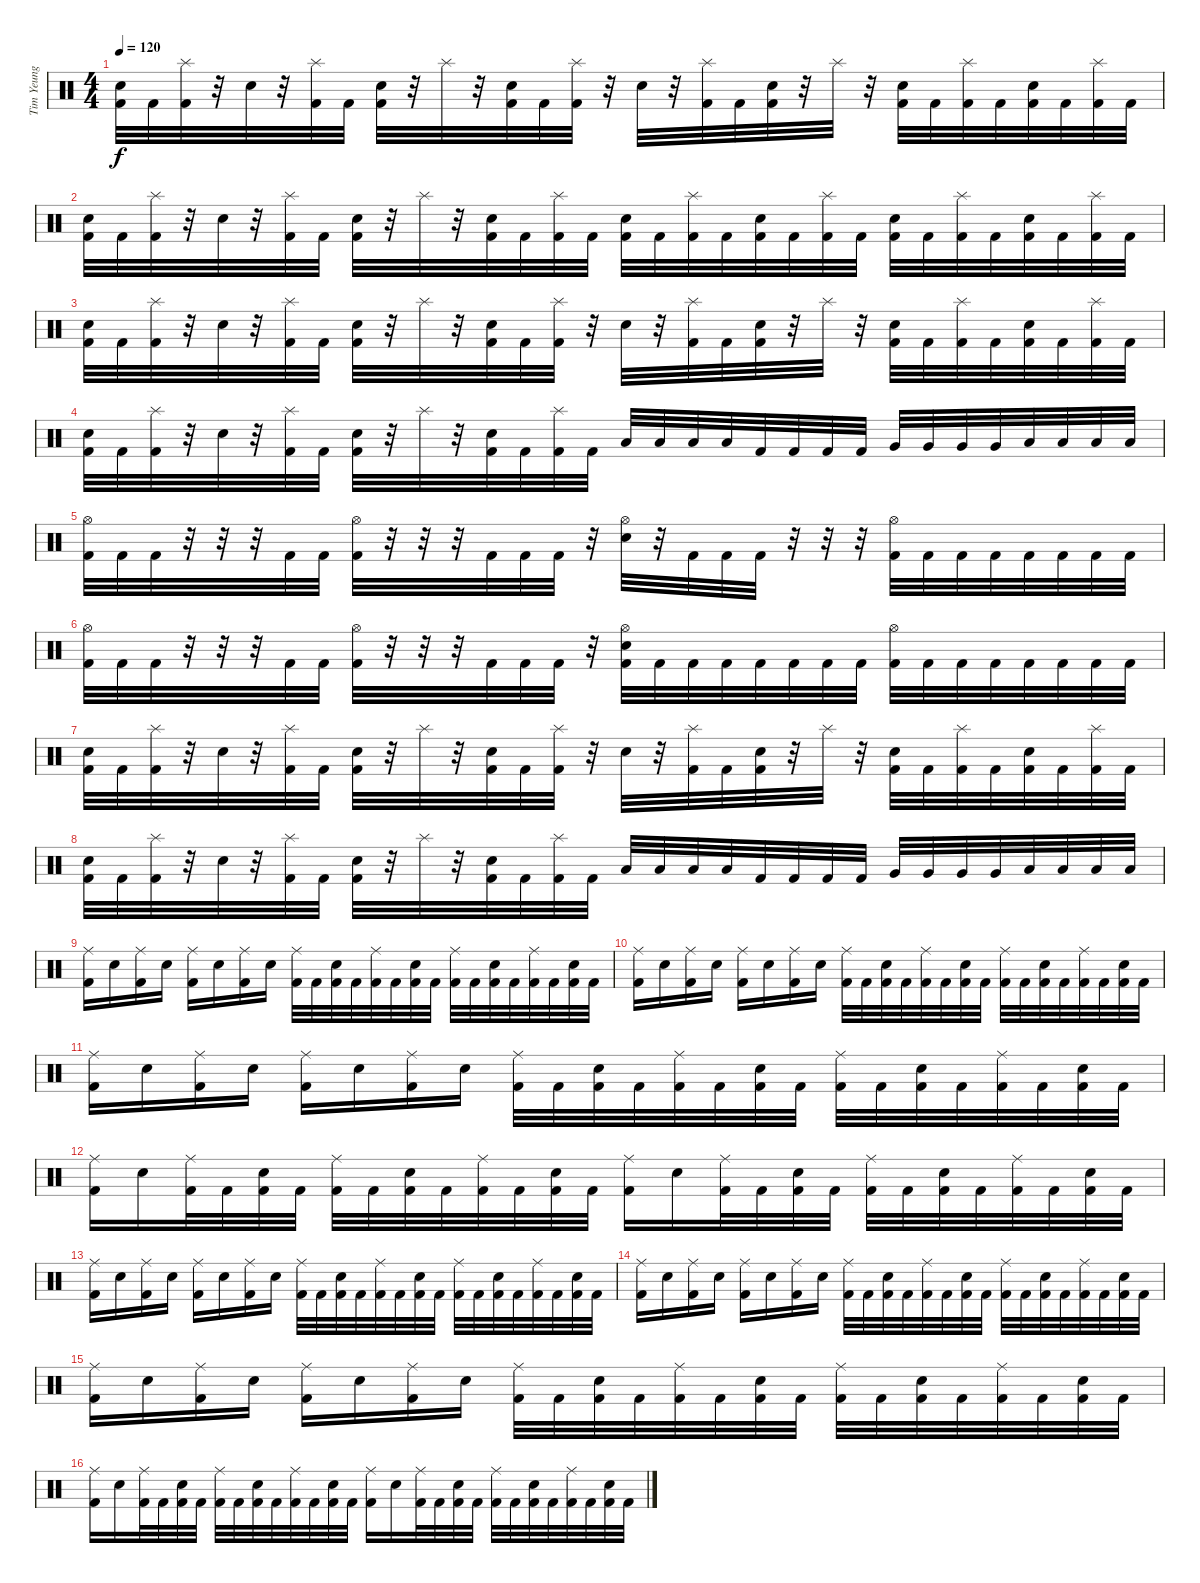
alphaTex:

\track ("Tim Yeung" "Tim Yeung") {instrument percussion}
\staff {score}
\articulation defaults
\ts (4 4)
\tempo 120
\clef neutral
\ks c
("Electric Snare (hit)" "Kick (hit) 2").32{dy f} "Kick (hit) 2".32 ("Splash (hit)" "Kick (hit) 2").32 r.32 "Electric Snare (hit)".32 r.32 ("Splash (hit)" "Kick (hit) 2").32 "Kick (hit) 2".32 ("Electric Snare (hit)" "Kick (hit) 2").32 r.32 "Splash (hit)".32 r.32 ("Electric Snare (hit)" "Kick (hit) 2").32 "Kick (hit) 2".32 ("Splash (hit)" "Kick (hit) 2").32 r.32 "Electric Snare (hit)".32 r.32 ("Splash (hit)" "Kick (hit) 2").32 "Kick (hit) 2".32 ("Electric Snare (hit)" "Kick (hit) 2").32 r.32 "Splash (hit)".32 r.32 ("Electric Snare (hit)" "Kick (hit) 2").32 "Kick (hit) 2".32 ("Splash (hit)" "Kick (hit) 2").32 "Kick (hit) 2".32 ("Electric Snare (hit)" "Kick (hit) 2").32 "Kick (hit) 2".32 ("Splash (hit)" "Kick (hit) 2").32 "Kick (hit) 2".32 |
("Electric Snare (hit)" "Kick (hit) 2").32 "Kick (hit) 2".32 ("Splash (hit)" "Kick (hit) 2").32 r.32 "Electric Snare (hit)".32 r.32 ("Splash (hit)" "Kick (hit) 2").32 "Kick (hit) 2".32 ("Electric Snare (hit)" "Kick (hit) 2").32 r.32 "Splash (hit)".32 r.32 ("Electric Snare (hit)" "Kick (hit) 2").32 "Kick (hit) 2".32 ("Splash (hit)" "Kick (hit) 2").32 "Kick (hit) 2".32 ("Electric Snare (hit)" "Kick (hit) 2").32 "Kick (hit) 2".32 ("Splash (hit)" "Kick (hit) 2").32 "Kick (hit) 2".32 ("Electric Snare (hit)" "Kick (hit) 2").32 "Kick (hit) 2".32 ("Splash (hit)" "Kick (hit) 2").32 "Kick (hit) 2".32 ("Electric Snare (hit)" "Kick (hit) 2").32 "Kick (hit) 2".32 ("Splash (hit)" "Kick (hit) 2").32 "Kick (hit) 2".32 ("Electric Snare (hit)" "Kick (hit) 2").32 "Kick (hit) 2".32 ("Splash (hit)" "Kick (hit) 2").32 "Kick (hit) 2".32 |
("Electric Snare (hit)" "Kick (hit) 2").32 "Kick (hit) 2".32 ("Splash (hit)" "Kick (hit) 2").32 r.32 "Electric Snare (hit)".32 r.32 ("Splash (hit)" "Kick (hit) 2").32 "Kick (hit) 2".32 ("Electric Snare (hit)" "Kick (hit) 2").32 r.32 "Splash (hit)".32 r.32 ("Electric Snare (hit)" "Kick (hit) 2").32 "Kick (hit) 2".32 ("Splash (hit)" "Kick (hit) 2").32 r.32 "Electric Snare (hit)".32 r.32 ("Splash (hit)" "Kick (hit) 2").32 "Kick (hit) 2".32 ("Electric Snare (hit)" "Kick (hit) 2").32 r.32 "Splash (hit)".32 r.32 ("Electric Snare (hit)" "Kick (hit) 2").32 "Kick (hit) 2".32 ("Splash (hit)" "Kick (hit) 2").32 "Kick (hit) 2".32 ("Electric Snare (hit)" "Kick (hit) 2").32 "Kick (hit) 2".32 ("Splash (hit)" "Kick (hit) 2").32 "Kick (hit) 2".32 |
("Electric Snare (hit)" "Kick (hit) 2").32 "Kick (hit) 2".32 ("Splash (hit)" "Kick (hit) 2").32 r.32 "Electric Snare (hit)".32 r.32 ("Splash (hit)" "Kick (hit) 2").32 "Kick (hit) 2".32 ("Electric Snare (hit)" "Kick (hit) 2").32 r.32 "Splash (hit)".32 r.32 ("Electric Snare (hit)" "Kick (hit) 2").32 "Kick (hit) 2".32 ("Splash (hit)" "Kick (hit) 2").32 "Kick (hit) 2".32 "Low Tom (hit)".32 "Low Tom (hit)".32 "Low Tom (hit)".32 "Low Tom (hit)".32 "Kick (hit) 2".32 "Kick (hit) 2".32 "Kick (hit) 2".32 "Kick (hit) 2".32 "Very Low Tom (hit)".32 "Very Low Tom (hit)".32 "Very Low Tom (hit)".32 "Very Low Tom (hit)".32 "Low Floor Tom (hit)".32 "Low Floor Tom (hit)".32 "Low Floor Tom (hit)".32 "Low Floor Tom (hit)".32 |
("Hi-Hat (open)" "Kick (hit) 2").32 "Kick (hit) 2".32 "Kick (hit) 2".32 r.32 r.32 r.32 "Kick (hit) 2".32 "Kick (hit) 2".32 ("Hi-Hat (open)" "Kick (hit) 2").32 r.32 r.32 r.32 "Kick (hit) 2".32 "Kick (hit) 2".32 "Kick (hit) 2".32 r.32 ("Hi-Hat (open)" "Electric Snare (hit)").32 r.32 "Kick (hit) 2".32 "Kick (hit) 2".32 "Kick (hit) 2".32 r.32 r.32 r.32 ("Hi-Hat (open)" "Kick (hit) 2").32 "Kick (hit) 2".32 "Kick (hit) 2".32 "Kick (hit) 2".32 "Kick (hit) 2".32 "Kick (hit) 2".32 "Kick (hit) 2".32 "Kick (hit) 2".32 |
("Hi-Hat (open)" "Kick (hit) 2").32 "Kick (hit) 2".32 "Kick (hit) 2".32 r.32 r.32 r.32 "Kick (hit) 2".32 "Kick (hit) 2".32 ("Hi-Hat (open)" "Kick (hit) 2").32 r.32 r.32 r.32 "Kick (hit) 2".32 "Kick (hit) 2".32 "Kick (hit) 2".32 r.32 ("Hi-Hat (open)" "Electric Snare (hit)" "Kick (hit) 2").32 "Kick (hit) 2".32 "Kick (hit) 2".32 "Kick (hit) 2".32 "Kick (hit) 2".32 "Kick (hit) 2".32 "Kick (hit) 2".32 "Kick (hit) 2".32 ("Hi-Hat (open)" "Kick (hit) 2").32 "Kick (hit) 2".32 "Kick (hit) 2".32 "Kick (hit) 2".32 "Kick (hit) 2".32 "Kick (hit) 2".32 "Kick (hit) 2".32 "Kick (hit) 2".32 |
("Electric Snare (hit)" "Kick (hit) 2").32 "Kick (hit) 2".32 ("Splash (hit)" "Kick (hit) 2").32 r.32 "Electric Snare (hit)".32 r.32 ("Splash (hit)" "Kick (hit) 2").32 "Kick (hit) 2".32 ("Electric Snare (hit)" "Kick (hit) 2").32 r.32 "Splash (hit)".32 r.32 ("Electric Snare (hit)" "Kick (hit) 2").32 "Kick (hit) 2".32 ("Splash (hit)" "Kick (hit) 2").32 r.32 "Electric Snare (hit)".32 r.32 ("Splash (hit)" "Kick (hit) 2").32 "Kick (hit) 2".32 ("Electric Snare (hit)" "Kick (hit) 2").32 r.32 "Splash (hit)".32 r.32 ("Electric Snare (hit)" "Kick (hit) 2").32 "Kick (hit) 2".32 ("Splash (hit)" "Kick (hit) 2").32 "Kick (hit) 2".32 ("Electric Snare (hit)" "Kick (hit) 2").32 "Kick (hit) 2".32 ("Splash (hit)" "Kick (hit) 2").32 "Kick (hit) 2".32 |
("Electric Snare (hit)" "Kick (hit) 2").32 "Kick (hit) 2".32 ("Splash (hit)" "Kick (hit) 2").32 r.32 "Electric Snare (hit)".32 r.32 ("Splash (hit)" "Kick (hit) 2").32 "Kick (hit) 2".32 ("Electric Snare (hit)" "Kick (hit) 2").32 r.32 "Splash (hit)".32 r.32 ("Electric Snare (hit)" "Kick (hit) 2").32 "Kick (hit) 2".32 ("Splash (hit)" "Kick (hit) 2").32 "Kick (hit) 2".32 "Low Tom (hit)".32 "Low Tom (hit)".32 "Low Tom (hit)".32 "Low Tom (hit)".32 "Kick (hit) 2".32 "Kick (hit) 2".32 "Kick (hit) 2".32 "Kick (hit) 2".32 "Very Low Tom (hit)".32 "Very Low Tom (hit)".32 "Very Low Tom (hit)".32 "Very Low Tom (hit)".32 "Low Floor Tom (hit)".32 "Low Floor Tom (hit)".32 "Low Floor Tom (hit)".32 "Low Floor Tom (hit)".32 |
("Ride (middle)" "Kick (hit) 2").16 "Electric Snare (hit)".16 ("Ride (middle)" "Kick (hit) 2").16 "Electric Snare (hit)".16 ("Ride (middle)" "Kick (hit) 2").16 "Electric Snare (hit)".16 ("Ride (middle)" "Kick (hit) 2").16 "Electric Snare (hit)".16 ("Ride (middle)" "Kick (hit) 2").32 "Kick (hit) 2".32 ("Electric Snare (hit)" "Kick (hit) 2").32 "Kick (hit) 2".32 ("Ride (middle)" "Kick (hit) 2").32 "Kick (hit) 2".32 ("Electric Snare (hit)" "Kick (hit) 2").32 "Kick (hit) 2".32 ("Ride (middle)" "Kick (hit) 2").32 "Kick (hit) 2".32 ("Electric Snare (hit)" "Kick (hit) 2").32 "Kick (hit) 2".32 ("Ride (middle)" "Kick (hit) 2").32 "Kick (hit) 2".32 ("Electric Snare (hit)" "Kick (hit) 2").32 "Kick (hit) 2".32 |
("Ride (middle)" "Kick (hit) 2").16 "Electric Snare (hit)".16 ("Ride (middle)" "Kick (hit) 2").16 "Electric Snare (hit)".16 ("Ride (middle)" "Kick (hit) 2").16 "Electric Snare (hit)".16 ("Ride (middle)" "Kick (hit) 2").16 "Electric Snare (hit)".16 ("Ride (middle)" "Kick (hit) 2").32 "Kick (hit) 2".32 ("Electric Snare (hit)" "Kick (hit) 2").32 "Kick (hit) 2".32 ("Ride (middle)" "Kick (hit) 2").32 "Kick (hit) 2".32 ("Electric Snare (hit)" "Kick (hit) 2").32 "Kick (hit) 2".32 ("Ride (middle)" "Kick (hit) 2").32 "Kick (hit) 2".32 ("Electric Snare (hit)" "Kick (hit) 2").32 "Kick (hit) 2".32 ("Ride (middle)" "Kick (hit) 2").32 "Kick (hit) 2".32 ("Electric Snare (hit)" "Kick (hit) 2").32 "Kick (hit) 2".32 |
("Ride (middle)" "Kick (hit) 2").16 "Electric Snare (hit)".16 ("Ride (middle)" "Kick (hit) 2").16 "Electric Snare (hit)".16 ("Ride (middle)" "Kick (hit) 2").16 "Electric Snare (hit)".16 ("Ride (middle)" "Kick (hit) 2").16 "Electric Snare (hit)".16 ("Ride (middle)" "Kick (hit) 2").32 "Kick (hit) 2".32 ("Electric Snare (hit)" "Kick (hit) 2").32 "Kick (hit) 2".32 ("Ride (middle)" "Kick (hit) 2").32 "Kick (hit) 2".32 ("Electric Snare (hit)" "Kick (hit) 2").32 "Kick (hit) 2".32 ("Ride (middle)" "Kick (hit) 2").32 "Kick (hit) 2".32 ("Electric Snare (hit)" "Kick (hit) 2").32 "Kick (hit) 2".32 ("Ride (middle)" "Kick (hit) 2").32 "Kick (hit) 2".32 ("Electric Snare (hit)" "Kick (hit) 2").32 "Kick (hit) 2".32 |
("Ride (middle)" "Kick (hit) 2").16 "Electric Snare (hit)".16 ("Ride (middle)" "Kick (hit) 2").32 "Kick (hit) 2".32 ("Electric Snare (hit)" "Kick (hit) 2").32 "Kick (hit) 2".32 ("Ride (middle)" "Kick (hit) 2").32 "Kick (hit) 2".32 ("Electric Snare (hit)" "Kick (hit) 2").32 "Kick (hit) 2".32 ("Ride (middle)" "Kick (hit) 2").32 "Kick (hit) 2".32 ("Electric Snare (hit)" "Kick (hit) 2").32 "Kick (hit) 2".32 ("Ride (middle)" "Kick (hit) 2").16 "Electric Snare (hit)".16 ("Ride (middle)" "Kick (hit) 2").32 "Kick (hit) 2".32 ("Electric Snare (hit)" "Kick (hit) 2").32 "Kick (hit) 2".32 ("Ride (middle)" "Kick (hit) 2").32 "Kick (hit) 2".32 ("Electric Snare (hit)" "Kick (hit) 2").32 "Kick (hit) 2".32 ("Ride (middle)" "Kick (hit) 2").32 "Kick (hit) 2".32 ("Electric Snare (hit)" "Kick (hit) 2").32 "Kick (hit) 2".32 |
("Ride (middle)" "Kick (hit) 2").16 "Electric Snare (hit)".16 ("Ride (middle)" "Kick (hit) 2").16 "Electric Snare (hit)".16 ("Ride (middle)" "Kick (hit) 2").16 "Electric Snare (hit)".16 ("Ride (middle)" "Kick (hit) 2").16 "Electric Snare (hit)".16 ("Ride (middle)" "Kick (hit) 2").32 "Kick (hit) 2".32 ("Electric Snare (hit)" "Kick (hit) 2").32 "Kick (hit) 2".32 ("Ride (middle)" "Kick (hit) 2").32 "Kick (hit) 2".32 ("Electric Snare (hit)" "Kick (hit) 2").32 "Kick (hit) 2".32 ("Ride (middle)" "Kick (hit) 2").32 "Kick (hit) 2".32 ("Electric Snare (hit)" "Kick (hit) 2").32 "Kick (hit) 2".32 ("Ride (middle)" "Kick (hit) 2").32 "Kick (hit) 2".32 ("Electric Snare (hit)" "Kick (hit) 2").32 "Kick (hit) 2".32 |
("Ride (middle)" "Kick (hit) 2").16 "Electric Snare (hit)".16 ("Ride (middle)" "Kick (hit) 2").16 "Electric Snare (hit)".16 ("Ride (middle)" "Kick (hit) 2").16 "Electric Snare (hit)".16 ("Ride (middle)" "Kick (hit) 2").16 "Electric Snare (hit)".16 ("Ride (middle)" "Kick (hit) 2").32 "Kick (hit) 2".32 ("Electric Snare (hit)" "Kick (hit) 2").32 "Kick (hit) 2".32 ("Ride (middle)" "Kick (hit) 2").32 "Kick (hit) 2".32 ("Electric Snare (hit)" "Kick (hit) 2").32 "Kick (hit) 2".32 ("Ride (middle)" "Kick (hit) 2").32 "Kick (hit) 2".32 ("Electric Snare (hit)" "Kick (hit) 2").32 "Kick (hit) 2".32 ("Ride (middle)" "Kick (hit) 2").32 "Kick (hit) 2".32 ("Electric Snare (hit)" "Kick (hit) 2").32 "Kick (hit) 2".32 |
("Ride (middle)" "Kick (hit) 2").16 "Electric Snare (hit)".16 ("Ride (middle)" "Kick (hit) 2").16 "Electric Snare (hit)".16 ("Ride (middle)" "Kick (hit) 2").16 "Electric Snare (hit)".16 ("Ride (middle)" "Kick (hit) 2").16 "Electric Snare (hit)".16 ("Ride (middle)" "Kick (hit) 2").32 "Kick (hit) 2".32 ("Electric Snare (hit)" "Kick (hit) 2").32 "Kick (hit) 2".32 ("Ride (middle)" "Kick (hit) 2").32 "Kick (hit) 2".32 ("Electric Snare (hit)" "Kick (hit) 2").32 "Kick (hit) 2".32 ("Ride (middle)" "Kick (hit) 2").32 "Kick (hit) 2".32 ("Electric Snare (hit)" "Kick (hit) 2").32 "Kick (hit) 2".32 ("Ride (middle)" "Kick (hit) 2").32 "Kick (hit) 2".32 ("Electric Snare (hit)" "Kick (hit) 2").32 "Kick (hit) 2".32 |
("Ride (middle)" "Kick (hit) 2").16 "Electric Snare (hit)".16 ("Ride (middle)" "Kick (hit) 2").32 "Kick (hit) 2".32 ("Electric Snare (hit)" "Kick (hit) 2").32 "Kick (hit) 2".32 ("Ride (middle)" "Kick (hit) 2").32 "Kick (hit) 2".32 ("Electric Snare (hit)" "Kick (hit) 2").32 "Kick (hit) 2".32 ("Ride (middle)" "Kick (hit) 2").32 "Kick (hit) 2".32 ("Electric Snare (hit)" "Kick (hit) 2").32 "Kick (hit) 2".32 ("Ride (middle)" "Kick (hit) 2").16 "Electric Snare (hit)".16 ("Ride (middle)" "Kick (hit) 2").32 "Kick (hit) 2".32 ("Electric Snare (hit)" "Kick (hit) 2").32 "Kick (hit) 2".32 ("Ride (middle)" "Kick (hit) 2").32 "Kick (hit) 2".32 ("Electric Snare (hit)" "Kick (hit) 2").32 "Kick (hit) 2".32 ("Ride (middle)" "Kick (hit) 2").32 "Kick (hit) 2".32 ("Electric Snare (hit)" "Kick (hit) 2").32 "Kick (hit) 2".32
